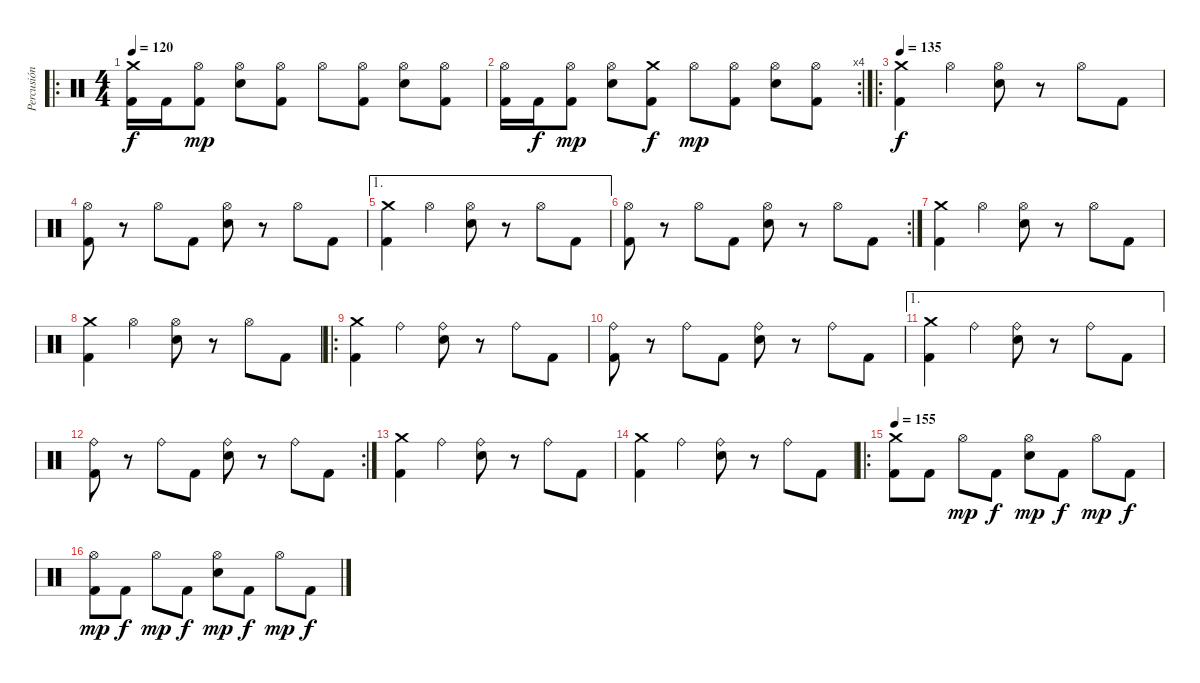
\track ("Percusión" "Percusión") {instrument percussion}
\staff {score}
\articulation defaults
\ro
\ts (4 4)
\tempo 120
\clef neutral
\ks c
("Crash medium (hit)" "Kick (hit) 2").16{dy f} "Kick (hit) 2".16 ("Hi-Hat (open)" "Kick (hit) 2").8{dy mp} ("Hi-Hat (open)" "Electric Snare (hit)").8 ("Hi-Hat (open)" "Kick (hit) 2").8 "Hi-Hat (open)".8 ("Hi-Hat (open)" "Kick (hit) 2").8 ("Hi-Hat (open)" "Electric Snare (hit)").8 ("Hi-Hat (open)" "Kick (hit) 2").8 |
\rc 4
("Hi-Hat (open)" "Kick (hit) 2").16 "Kick (hit) 2".16{dy f} ("Hi-Hat (open)" "Kick (hit) 2").8{dy mp} ("Hi-Hat (open)" "Electric Snare (hit)").8 ("Crash medium (hit)" "Kick (hit) 2").8{dy f} "Hi-Hat (open)".8{dy mp} ("Hi-Hat (open)" "Kick (hit) 2").8 ("Hi-Hat (open)" "Electric Snare (hit)").8 ("Hi-Hat (open)" "Kick (hit) 2").8 |
\ro
\tempo 135
("Crash medium (hit)" "Kick (hit) 2").4{dy f} "Hi-Hat (open)".4 ("Hi-Hat (open)" "Electric Snare (hit)").8 r.8 "Hi-Hat (open)".8 "Kick (hit) 2".8 |
("Hi-Hat (open)" "Kick (hit) 2").8 r.8 "Hi-Hat (open)".8 "Kick (hit) 2".8 ("Hi-Hat (open)" "Electric Snare (hit)").8 r.8 "Hi-Hat (open)".8 "Kick (hit) 2".8 |
\ae 1
("Crash medium (hit)" "Kick (hit) 2").4 "Hi-Hat (open)".4 ("Hi-Hat (open)" "Electric Snare (hit)").8 r.8 "Hi-Hat (open)".8 "Kick (hit) 2".8 |
\rc 2
("Hi-Hat (open)" "Kick (hit) 2").8 r.8 "Hi-Hat (open)".8 "Kick (hit) 2".8 ("Hi-Hat (open)" "Electric Snare (hit)").8 r.8 "Hi-Hat (open)".8 "Kick (hit) 2".8 |
("Crash medium (hit)" "Kick (hit) 2").4 "Hi-Hat (open)".4 ("Hi-Hat (open)" "Electric Snare (hit)").8 r.8 "Hi-Hat (open)".8 "Kick (hit) 2".8 |
("Crash medium (hit)" "Kick (hit) 2").4 "Hi-Hat (open)".4 ("Hi-Hat (open)" "Electric Snare (hit)").8 r.8 "Hi-Hat (open)".8 "Kick (hit) 2".8 |
\ro
("Crash medium (hit)" "Kick (hit) 2").4 "Ride (bell)".4 ("Ride (bell)" "Electric Snare (hit)").8 r.8 "Ride (bell)".8 "Kick (hit) 2".8 |
("Ride (bell)" "Kick (hit) 2").8 r.8 "Ride (bell)".8 "Kick (hit) 2".8 ("Ride (bell)" "Electric Snare (hit)").8 r.8 "Ride (bell)".8 "Kick (hit) 2".8 |
\ae 1
("Crash medium (hit)" "Kick (hit) 2").4 "Ride (bell)".4 ("Ride (bell)" "Electric Snare (hit)").8 r.8 "Ride (bell)".8 "Kick (hit) 2".8 |
\rc 2
("Ride (bell)" "Kick (hit) 2").8 r.8 "Ride (bell)".8 "Kick (hit) 2".8 ("Ride (bell)" "Electric Snare (hit)").8 r.8 "Ride (bell)".8 "Kick (hit) 2".8 |
("Crash medium (hit)" "Kick (hit) 2").4 "Ride (bell)".4 ("Ride (bell)" "Electric Snare (hit)").8 r.8 "Ride (bell)".8 "Kick (hit) 2".8 |
("Crash medium (hit)" "Kick (hit) 2").4 "Ride (bell)".4 ("Ride (bell)" "Electric Snare (hit)").8 r.8 "Ride (bell)".8 "Kick (hit) 2".8 |
\ro
\tempo 155
("Crash medium (hit)" "Kick (hit) 2").8 "Kick (hit) 2".8 "Hi-Hat (open)".8{dy mp} "Kick (hit) 2".8{dy f} ("Hi-Hat (open)" "Electric Snare (hit)").8{dy mp} "Kick (hit) 2".8{dy f} "Hi-Hat (open)".8{dy mp} "Kick (hit) 2".8{dy f} |
("Hi-Hat (open)" "Kick (hit) 2").8{dy mp} "Kick (hit) 2".8{dy f} "Hi-Hat (open)".8{dy mp} "Kick (hit) 2".8{dy f} ("Hi-Hat (open)" "Electric Snare (hit)").8{dy mp} "Kick (hit) 2".8{dy f} "Hi-Hat (open)".8{dy mp} "Kick (hit) 2".8{dy f}
